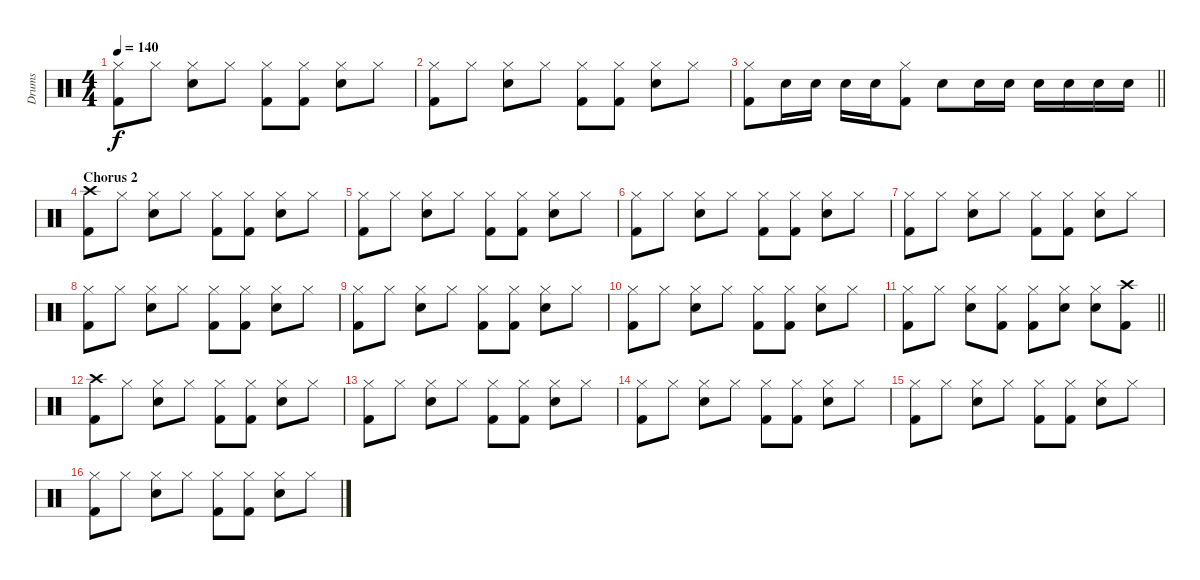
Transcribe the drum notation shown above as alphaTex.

\track ("Drums" "Drums") {instrument percussion}
\staff {score}
\articulation defaults
\ts (4 4)
\tempo 140
\clef neutral
\ks c
("Hi-Hat (closed)" "Kick (hit) 2").8{dy f} "Hi-Hat (closed)".8 ("Hi-Hat (closed)" "Electric Snare (hit)").8 "Hi-Hat (closed)".8 ("Hi-Hat (closed)" "Kick (hit) 2").8 ("Hi-Hat (closed)" "Kick (hit) 2").8 ("Hi-Hat (closed)" "Electric Snare (hit)").8 "Hi-Hat (closed)".8 |
("Hi-Hat (closed)" "Kick (hit) 2").8 "Hi-Hat (closed)".8 ("Hi-Hat (closed)" "Electric Snare (hit)").8 "Hi-Hat (closed)".8 ("Hi-Hat (closed)" "Kick (hit) 2").8 ("Hi-Hat (closed)" "Kick (hit) 2").8 ("Hi-Hat (closed)" "Electric Snare (hit)").8 "Hi-Hat (closed)".8 |
\barLineRight lightlight
("Hi-Hat (closed)" "Kick (hit) 2").8 "Electric Snare (hit)".16 "Electric Snare (hit)".16 "Electric Snare (hit)".16 "Electric Snare (hit)".16 ("Hi-Hat (closed)" "Kick (hit) 2").8 "Electric Snare (hit)".8 "Electric Snare (hit)".16 "Electric Snare (hit)".16 "Electric Snare (hit)".16 "Electric Snare (hit)".16 "Electric Snare (hit)".16 "Electric Snare (hit)".16 |
\section ("" "Chorus 2")
("Crash high (hit)" "Kick (hit) 2").8 "Hi-Hat (closed)".8 ("Hi-Hat (closed)" "Electric Snare (hit)").8 "Hi-Hat (closed)".8 ("Hi-Hat (closed)" "Kick (hit) 2").8 ("Hi-Hat (closed)" "Kick (hit) 2").8 ("Hi-Hat (closed)" "Electric Snare (hit)").8 "Hi-Hat (closed)".8 |
("Hi-Hat (closed)" "Kick (hit) 2").8 "Hi-Hat (closed)".8 ("Hi-Hat (closed)" "Electric Snare (hit)").8 "Hi-Hat (closed)".8 ("Hi-Hat (closed)" "Kick (hit) 2").8 ("Hi-Hat (closed)" "Kick (hit) 2").8 ("Hi-Hat (closed)" "Electric Snare (hit)").8 "Hi-Hat (closed)".8 |
("Hi-Hat (closed)" "Kick (hit) 2").8 "Hi-Hat (closed)".8 ("Hi-Hat (closed)" "Electric Snare (hit)").8 "Hi-Hat (closed)".8 ("Hi-Hat (closed)" "Kick (hit) 2").8 ("Hi-Hat (closed)" "Kick (hit) 2").8 ("Hi-Hat (closed)" "Electric Snare (hit)").8 "Hi-Hat (closed)".8 |
("Hi-Hat (closed)" "Kick (hit) 2").8 "Hi-Hat (closed)".8 ("Hi-Hat (closed)" "Electric Snare (hit)").8 "Hi-Hat (closed)".8 ("Hi-Hat (closed)" "Kick (hit) 2").8 ("Hi-Hat (closed)" "Kick (hit) 2").8 ("Hi-Hat (closed)" "Electric Snare (hit)").8 "Hi-Hat (closed)".8 |
("Hi-Hat (closed)" "Kick (hit) 2").8 "Hi-Hat (closed)".8 ("Hi-Hat (closed)" "Electric Snare (hit)").8 "Hi-Hat (closed)".8 ("Hi-Hat (closed)" "Kick (hit) 2").8 ("Hi-Hat (closed)" "Kick (hit) 2").8 ("Hi-Hat (closed)" "Electric Snare (hit)").8 "Hi-Hat (closed)".8 |
("Hi-Hat (closed)" "Kick (hit) 2").8 "Hi-Hat (closed)".8 ("Hi-Hat (closed)" "Electric Snare (hit)").8 "Hi-Hat (closed)".8 ("Hi-Hat (closed)" "Kick (hit) 2").8 ("Hi-Hat (closed)" "Kick (hit) 2").8 ("Hi-Hat (closed)" "Electric Snare (hit)").8 "Hi-Hat (closed)".8 |
("Hi-Hat (closed)" "Kick (hit) 2").8 "Hi-Hat (closed)".8 ("Hi-Hat (closed)" "Electric Snare (hit)").8 "Hi-Hat (closed)".8 ("Hi-Hat (closed)" "Kick (hit) 2").8 ("Hi-Hat (closed)" "Kick (hit) 2").8 ("Hi-Hat (closed)" "Electric Snare (hit)").8 "Hi-Hat (closed)".8 |
\barLineRight lightlight
("Hi-Hat (closed)" "Kick (hit) 2").8 "Hi-Hat (closed)".8 ("Hi-Hat (closed)" "Electric Snare (hit)").8 ("Hi-Hat (closed)" "Kick (hit) 2").8 ("Hi-Hat (closed)" "Kick (hit) 2").8 ("Hi-Hat (closed)" "Electric Snare (hit)").8 ("Hi-Hat (closed)" "Electric Snare (hit)").8 ("Crash high (hit)" "Kick (hit) 2").8 |
("Crash high (hit)" "Kick (hit) 2").8 "Hi-Hat (closed)".8 ("Hi-Hat (closed)" "Electric Snare (hit)").8 "Hi-Hat (closed)".8 ("Hi-Hat (closed)" "Kick (hit) 2").8 ("Hi-Hat (closed)" "Kick (hit) 2").8 ("Hi-Hat (closed)" "Electric Snare (hit)").8 "Hi-Hat (closed)".8 |
("Hi-Hat (closed)" "Kick (hit) 2").8 "Hi-Hat (closed)".8 ("Hi-Hat (closed)" "Electric Snare (hit)").8 "Hi-Hat (closed)".8 ("Hi-Hat (closed)" "Kick (hit) 2").8 ("Hi-Hat (closed)" "Kick (hit) 2").8 ("Hi-Hat (closed)" "Electric Snare (hit)").8 "Hi-Hat (closed)".8 |
("Hi-Hat (closed)" "Kick (hit) 2").8 "Hi-Hat (closed)".8 ("Hi-Hat (closed)" "Electric Snare (hit)").8 "Hi-Hat (closed)".8 ("Hi-Hat (closed)" "Kick (hit) 2").8 ("Hi-Hat (closed)" "Kick (hit) 2").8 ("Hi-Hat (closed)" "Electric Snare (hit)").8 "Hi-Hat (closed)".8 |
("Hi-Hat (closed)" "Kick (hit) 2").8 "Hi-Hat (closed)".8 ("Hi-Hat (closed)" "Electric Snare (hit)").8 "Hi-Hat (closed)".8 ("Hi-Hat (closed)" "Kick (hit) 2").8 ("Hi-Hat (closed)" "Kick (hit) 2").8 ("Hi-Hat (closed)" "Electric Snare (hit)").8 "Hi-Hat (closed)".8 |
("Hi-Hat (closed)" "Kick (hit) 2").8 "Hi-Hat (closed)".8 ("Hi-Hat (closed)" "Electric Snare (hit)").8 "Hi-Hat (closed)".8 ("Hi-Hat (closed)" "Kick (hit) 2").8 ("Hi-Hat (closed)" "Kick (hit) 2").8 ("Hi-Hat (closed)" "Electric Snare (hit)").8 "Hi-Hat (closed)".8
